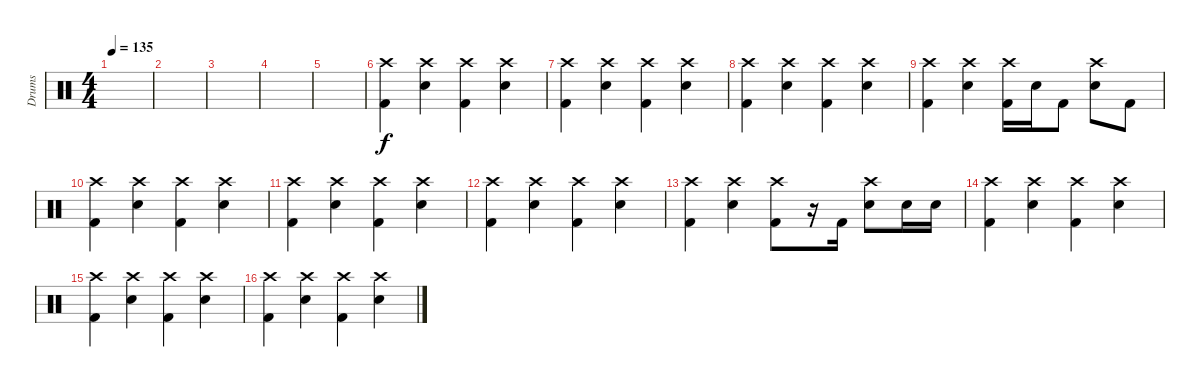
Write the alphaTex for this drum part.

\track ("Drums" "Drums") {instrument percussion}
\staff {score}
\articulation defaults
\ts (4 4)
\tempo 135
\clef neutral
\ks c
|
|
|
|
|
("Crash high (hit)" "Kick (hit) 2").4 ("Crash high (hit)" "Electric Snare (hit)").4 ("Crash high (hit)" "Kick (hit) 2").4 ("Crash high (hit)" "Electric Snare (hit)").4 |
("Crash high (hit)" "Kick (hit) 2").4 ("Crash high (hit)" "Electric Snare (hit)").4 ("Crash high (hit)" "Kick (hit) 2").4 ("Crash high (hit)" "Electric Snare (hit)").4 |
("Crash high (hit)" "Kick (hit) 2").4 ("Crash high (hit)" "Electric Snare (hit)").4 ("Crash high (hit)" "Kick (hit) 2").4 ("Crash high (hit)" "Electric Snare (hit)").4 |
("Crash high (hit)" "Kick (hit) 2").4 ("Crash high (hit)" "Electric Snare (hit)").4 ("Crash high (hit)" "Kick (hit) 2").16 "Electric Snare (hit)".16 "Kick (hit) 2".8 ("Crash high (hit)" "Electric Snare (hit)").8 "Kick (hit) 2".8 |
("Crash high (hit)" "Kick (hit) 2").4 ("Crash high (hit)" "Electric Snare (hit)").4 ("Crash high (hit)" "Kick (hit) 2").4 ("Crash high (hit)" "Electric Snare (hit)").4 |
("Crash high (hit)" "Kick (hit) 2").4 ("Crash high (hit)" "Electric Snare (hit)").4 ("Crash high (hit)" "Kick (hit) 2").4 ("Crash high (hit)" "Electric Snare (hit)").4 |
("Crash high (hit)" "Kick (hit) 2").4 ("Crash high (hit)" "Electric Snare (hit)").4 ("Crash high (hit)" "Kick (hit) 2").4 ("Crash high (hit)" "Electric Snare (hit)").4 |
("Crash high (hit)" "Kick (hit) 2").4 ("Crash high (hit)" "Electric Snare (hit)").4 ("Crash high (hit)" "Kick (hit) 2").8 r.16 "Kick (hit) 2".16 ("Crash high (hit)" "Electric Snare (hit)").8 "Electric Snare (hit)".16 "Electric Snare (hit)".16 |
("Crash high (hit)" "Kick (hit) 2").4 ("Crash high (hit)" "Electric Snare (hit)").4 ("Crash high (hit)" "Kick (hit) 2").4 ("Crash high (hit)" "Electric Snare (hit)").4 |
("Crash high (hit)" "Kick (hit) 2").4 ("Crash high (hit)" "Electric Snare (hit)").4 ("Crash high (hit)" "Kick (hit) 2").4 ("Crash high (hit)" "Electric Snare (hit)").4 |
("Crash high (hit)" "Kick (hit) 2").4 ("Crash high (hit)" "Electric Snare (hit)").4 ("Crash high (hit)" "Kick (hit) 2").4 ("Crash high (hit)" "Electric Snare (hit)").4
